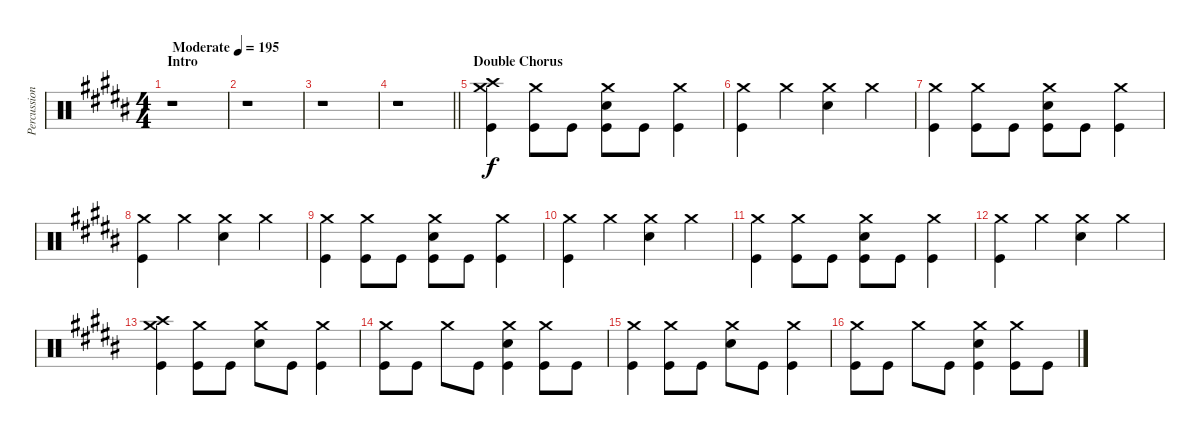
\track ("Percussion" "Percussion") {instrument percussion}
\staff {score}
\articulation defaults
\ts (4 4)
\section ("" "Intro")
\tempo (195 "Moderate")
\clef neutral
\ks b
r.1{dy f} |
r.1 |
r.1 |
\barLineRight lightlight
r.1 |
\section ("" "Double Chorus")
("Crash high (hit)" "Crash medium (hit)" "Kick (hit)").4 ("Crash medium (hit)" "Kick (hit)").8 "Kick (hit)".8 ("Crash medium (hit)" "Electric Snare (hit)" "Kick (hit)").8 "Kick (hit)".8 ("Crash medium (hit)" "Kick (hit)").4 |
("Crash medium (hit)" "Kick (hit)").4 "Crash medium (hit)".4 ("Crash medium (hit)" "Electric Snare (hit)").4 "Crash medium (hit)".4 |
("Crash medium (hit)" "Kick (hit)").4 ("Crash medium (hit)" "Kick (hit)").8 "Kick (hit)".8 ("Crash medium (hit)" "Electric Snare (hit)" "Kick (hit)").8 "Kick (hit)".8 ("Crash medium (hit)" "Kick (hit)").4 |
("Crash medium (hit)" "Kick (hit)").4 "Crash medium (hit)".4 ("Crash medium (hit)" "Electric Snare (hit)").4 "Crash medium (hit)".4 |
("Crash medium (hit)" "Kick (hit)").4 ("Crash medium (hit)" "Kick (hit)").8 "Kick (hit)".8 ("Crash medium (hit)" "Electric Snare (hit)" "Kick (hit)").8 "Kick (hit)".8 ("Crash medium (hit)" "Kick (hit)").4 |
("Crash medium (hit)" "Kick (hit)").4 "Crash medium (hit)".4 ("Crash medium (hit)" "Electric Snare (hit)").4 "Crash medium (hit)".4 |
("Crash medium (hit)" "Kick (hit)").4 ("Crash medium (hit)" "Kick (hit)").8 "Kick (hit)".8 ("Crash medium (hit)" "Electric Snare (hit)" "Kick (hit)").8 "Kick (hit)".8 ("Crash medium (hit)" "Kick (hit)").4 |
("Crash medium (hit)" "Kick (hit)").4 "Crash medium (hit)".4 ("Crash medium (hit)" "Electric Snare (hit)").4 "Crash medium (hit)".4 |
("Crash high (hit)" "Crash medium (hit)" "Kick (hit)").4 ("Crash medium (hit)" "Kick (hit)").8 "Kick (hit)".8 ("Crash medium (hit)" "Electric Snare (hit)").8 "Kick (hit)".8 ("Crash medium (hit)" "Kick (hit)").4 |
("Crash medium (hit)" "Kick (hit)").8 "Kick (hit)".8 "Crash medium (hit)".8 "Kick (hit)".8 ("Crash medium (hit)" "Electric Snare (hit)" "Kick (hit)").4 ("Crash medium (hit)" "Kick (hit)").8 "Kick (hit)".8 |
("Crash medium (hit)" "Kick (hit)").4 ("Crash medium (hit)" "Kick (hit)").8 "Kick (hit)".8 ("Crash medium (hit)" "Electric Snare (hit)").8 "Kick (hit)".8 ("Crash medium (hit)" "Kick (hit)").4 |
("Crash medium (hit)" "Kick (hit)").8 "Kick (hit)".8 "Crash medium (hit)".8 "Kick (hit)".8 ("Crash medium (hit)" "Electric Snare (hit)" "Kick (hit)").4 ("Crash medium (hit)" "Kick (hit)").8 "Kick (hit)".8
